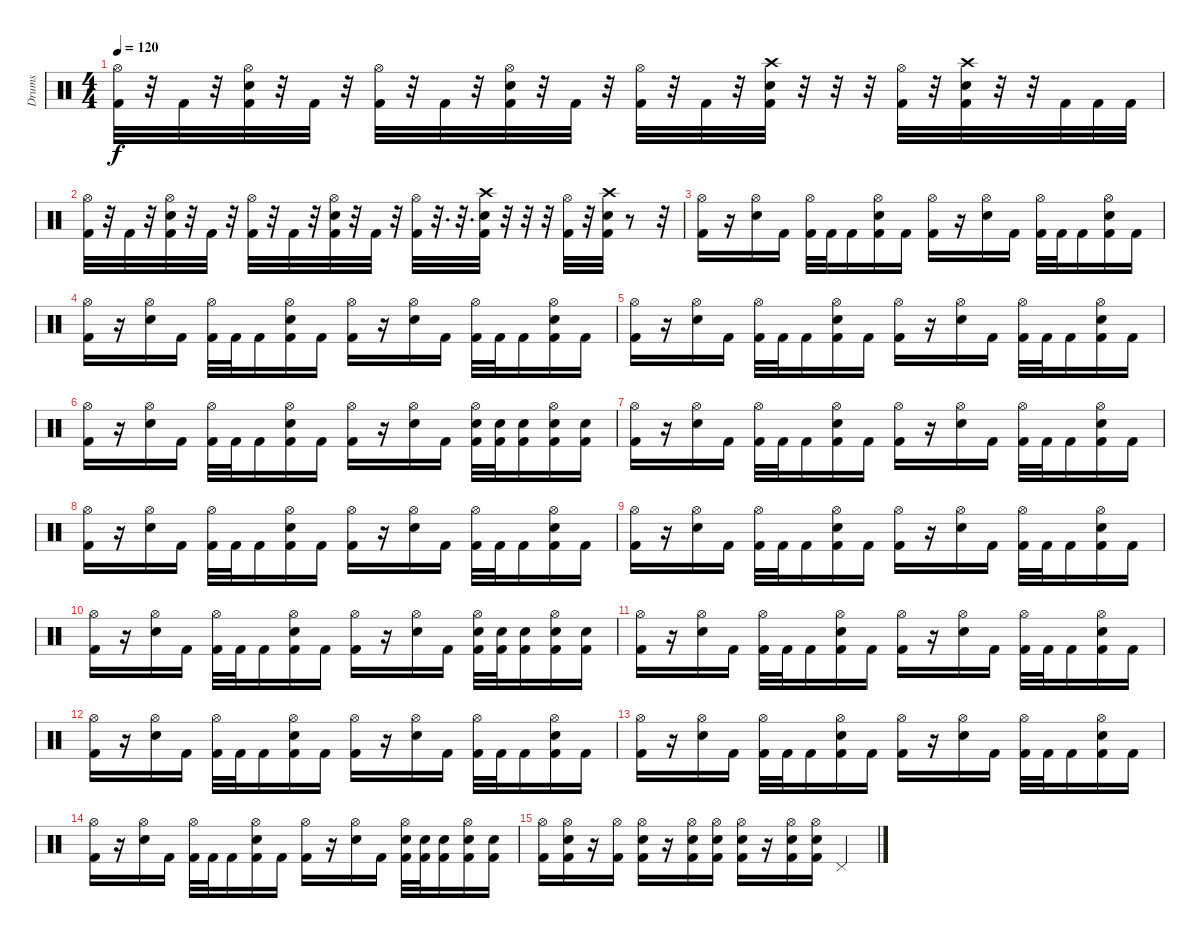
\track ("Drums" "Drums") {instrument percussion}
\staff {score}
\articulation defaults
\ts (4 4)
\tempo 120
\clef neutral
\ks c
("Hi-Hat (open)" "Kick (hit) 2").32{dy f} r.32 "Kick (hit) 2".32 r.32 ("Hi-Hat (open)" "Snare (hit) 2" "Kick (hit) 2").32 r.32 "Kick (hit) 2".32 r.32 ("Hi-Hat (open)" "Kick (hit) 2").32 r.32 "Kick (hit) 2".32 r.32 ("Hi-Hat (open)" "Snare (hit) 2" "Kick (hit) 2").32 r.32 "Kick (hit) 2".32 r.32 ("Hi-Hat (open)" "Kick (hit) 2").32 r.32 "Kick (hit) 2".32 r.32 ("Crash high (hit)" "Snare (hit) 2" "Kick (hit) 2").32 r.32 r.32 r.32 ("Hi-Hat (open)" "Kick (hit) 2").32 r.32 ("Crash high (hit)" "Snare (hit) 2" "Kick (hit) 2").32 r.32 r.32 "Kick (hit) 2".32 "Kick (hit) 2".32 "Kick (hit) 2".32 |
("Hi-Hat (open)" "Kick (hit) 2").32 r.32 "Kick (hit) 2".32 r.32 ("Hi-Hat (open)" "Snare (hit) 2" "Kick (hit) 2").32 r.32 "Kick (hit) 2".32 r.32 ("Hi-Hat (open)" "Kick (hit) 2").32 r.32 "Kick (hit) 2".32 r.32 ("Hi-Hat (open)" "Snare (hit) 2" "Kick (hit) 2").32 r.32 "Kick (hit) 2".32 r.32 ("Hi-Hat (open)" "Kick (hit) 2").32 r.32{d} r.32{d} ("Crash high (hit)" "Snare (hit) 2" "Kick (hit) 2").32 r.32 r.32 r.32 ("Hi-Hat (open)" "Kick (hit) 2").32 r.32 ("Crash high (hit)" "Snare (hit) 2" "Kick (hit) 2").32 r.8 r.32 |
("Hi-Hat (open)" "Kick (hit) 2").16 r.16 ("Hi-Hat (open)" "Snare (hit) 2").16 "Kick (hit) 2".16 ("Hi-Hat (open)" "Kick (hit) 2").32 "Kick (hit) 2".32 "Kick (hit) 2".16 ("Hi-Hat (open)" "Snare (hit) 2" "Kick (hit) 2").16 "Kick (hit) 2".16 ("Hi-Hat (open)" "Kick (hit) 2").16 r.16 ("Hi-Hat (open)" "Snare (hit) 2").16 "Kick (hit) 2".16 ("Hi-Hat (open)" "Kick (hit) 2").32 "Kick (hit) 2".32 "Kick (hit) 2".16 ("Hi-Hat (open)" "Snare (hit) 2" "Kick (hit) 2").16 "Kick (hit) 2".16 |
("Hi-Hat (open)" "Kick (hit) 2").16 r.16 ("Hi-Hat (open)" "Snare (hit) 2").16 "Kick (hit) 2".16 ("Hi-Hat (open)" "Kick (hit) 2").32 "Kick (hit) 2".32 "Kick (hit) 2".16 ("Hi-Hat (open)" "Snare (hit) 2" "Kick (hit) 2").16 "Kick (hit) 2".16 ("Hi-Hat (open)" "Kick (hit) 2").16 r.16 ("Hi-Hat (open)" "Snare (hit) 2").16 "Kick (hit) 2".16 ("Hi-Hat (open)" "Kick (hit) 2").32 "Kick (hit) 2".32 "Kick (hit) 2".16 ("Hi-Hat (open)" "Snare (hit) 2" "Kick (hit) 2").16 "Kick (hit) 2".16 |
("Hi-Hat (open)" "Kick (hit) 2").16 r.16 ("Hi-Hat (open)" "Snare (hit) 2").16 "Kick (hit) 2".16 ("Hi-Hat (open)" "Kick (hit) 2").32 "Kick (hit) 2".32 "Kick (hit) 2".16 ("Hi-Hat (open)" "Snare (hit) 2" "Kick (hit) 2").16 "Kick (hit) 2".16 ("Hi-Hat (open)" "Kick (hit) 2").16 r.16 ("Hi-Hat (open)" "Snare (hit) 2").16 "Kick (hit) 2".16 ("Hi-Hat (open)" "Kick (hit) 2").32 "Kick (hit) 2".32 "Kick (hit) 2".16 ("Hi-Hat (open)" "Snare (hit) 2" "Kick (hit) 2").16 "Kick (hit) 2".16 |
("Hi-Hat (open)" "Kick (hit) 2").16 r.16 ("Hi-Hat (open)" "Snare (hit) 2").16 "Kick (hit) 2".16 ("Hi-Hat (open)" "Kick (hit) 2").32 "Kick (hit) 2".32 "Kick (hit) 2".16 ("Hi-Hat (open)" "Snare (hit) 2" "Kick (hit) 2").16 "Kick (hit) 2".16 ("Hi-Hat (open)" "Kick (hit) 2").16 r.16 ("Hi-Hat (open)" "Snare (hit) 2").16 "Kick (hit) 2".16 ("Hi-Hat (open)" "Snare (hit) 2" "Kick (hit) 2").32 ("Snare (hit) 2" "Kick (hit) 2").32 ("Snare (hit) 2" "Kick (hit) 2").16 ("Hi-Hat (open)" "Snare (hit) 2" "Kick (hit) 2").16 ("Snare (hit) 2" "Kick (hit) 2").16 |
("Hi-Hat (open)" "Kick (hit) 2").16 r.16 ("Hi-Hat (open)" "Snare (hit) 2").16 "Kick (hit) 2".16 ("Hi-Hat (open)" "Kick (hit) 2").32 "Kick (hit) 2".32 "Kick (hit) 2".16 ("Hi-Hat (open)" "Snare (hit) 2" "Kick (hit) 2").16 "Kick (hit) 2".16 ("Hi-Hat (open)" "Kick (hit) 2").16 r.16 ("Hi-Hat (open)" "Snare (hit) 2").16 "Kick (hit) 2".16 ("Hi-Hat (open)" "Kick (hit) 2").32 "Kick (hit) 2".32 "Kick (hit) 2".16 ("Hi-Hat (open)" "Snare (hit) 2" "Kick (hit) 2").16 "Kick (hit) 2".16 |
("Hi-Hat (open)" "Kick (hit) 2").16 r.16 ("Hi-Hat (open)" "Snare (hit) 2").16 "Kick (hit) 2".16 ("Hi-Hat (open)" "Kick (hit) 2").32 "Kick (hit) 2".32 "Kick (hit) 2".16 ("Hi-Hat (open)" "Snare (hit) 2" "Kick (hit) 2").16 "Kick (hit) 2".16 ("Hi-Hat (open)" "Kick (hit) 2").16 r.16 ("Hi-Hat (open)" "Snare (hit) 2").16 "Kick (hit) 2".16 ("Hi-Hat (open)" "Kick (hit) 2").32 "Kick (hit) 2".32 "Kick (hit) 2".16 ("Hi-Hat (open)" "Snare (hit) 2" "Kick (hit) 2").16 "Kick (hit) 2".16 |
("Hi-Hat (open)" "Kick (hit) 2").16 r.16 ("Hi-Hat (open)" "Snare (hit) 2").16 "Kick (hit) 2".16 ("Hi-Hat (open)" "Kick (hit) 2").32 "Kick (hit) 2".32 "Kick (hit) 2".16 ("Hi-Hat (open)" "Snare (hit) 2" "Kick (hit) 2").16 "Kick (hit) 2".16 ("Hi-Hat (open)" "Kick (hit) 2").16 r.16 ("Hi-Hat (open)" "Snare (hit) 2").16 "Kick (hit) 2".16 ("Hi-Hat (open)" "Kick (hit) 2").32 "Kick (hit) 2".32 "Kick (hit) 2".16 ("Hi-Hat (open)" "Snare (hit) 2" "Kick (hit) 2").16 "Kick (hit) 2".16 |
("Hi-Hat (open)" "Kick (hit) 2").16 r.16 ("Hi-Hat (open)" "Snare (hit) 2").16 "Kick (hit) 2".16 ("Hi-Hat (open)" "Kick (hit) 2").32 "Kick (hit) 2".32 "Kick (hit) 2".16 ("Hi-Hat (open)" "Snare (hit) 2" "Kick (hit) 2").16 "Kick (hit) 2".16 ("Hi-Hat (open)" "Kick (hit) 2").16 r.16 ("Hi-Hat (open)" "Snare (hit) 2").16 "Kick (hit) 2".16 ("Hi-Hat (open)" "Snare (hit) 2" "Kick (hit) 2").32 ("Snare (hit) 2" "Kick (hit) 2").32 ("Snare (hit) 2" "Kick (hit) 2").16 ("Hi-Hat (open)" "Snare (hit) 2" "Kick (hit) 2").16 ("Snare (hit) 2" "Kick (hit) 2").16 |
("Hi-Hat (open)" "Kick (hit) 2").16 r.16 ("Hi-Hat (open)" "Snare (hit) 2").16 "Kick (hit) 2".16 ("Hi-Hat (open)" "Kick (hit) 2").32 "Kick (hit) 2".32 "Kick (hit) 2".16 ("Hi-Hat (open)" "Snare (hit) 2" "Kick (hit) 2").16 "Kick (hit) 2".16 ("Hi-Hat (open)" "Kick (hit) 2").16 r.16 ("Hi-Hat (open)" "Snare (hit) 2").16 "Kick (hit) 2".16 ("Hi-Hat (open)" "Kick (hit) 2").32 "Kick (hit) 2".32 "Kick (hit) 2".16 ("Hi-Hat (open)" "Snare (hit) 2" "Kick (hit) 2").16 "Kick (hit) 2".16 |
("Hi-Hat (open)" "Kick (hit) 2").16 r.16 ("Hi-Hat (open)" "Snare (hit) 2").16 "Kick (hit) 2".16 ("Hi-Hat (open)" "Kick (hit) 2").32 "Kick (hit) 2".32 "Kick (hit) 2".16 ("Hi-Hat (open)" "Snare (hit) 2" "Kick (hit) 2").16 "Kick (hit) 2".16 ("Hi-Hat (open)" "Kick (hit) 2").16 r.16 ("Hi-Hat (open)" "Snare (hit) 2").16 "Kick (hit) 2".16 ("Hi-Hat (open)" "Kick (hit) 2").32 "Kick (hit) 2".32 "Kick (hit) 2".16 ("Hi-Hat (open)" "Snare (hit) 2" "Kick (hit) 2").16 "Kick (hit) 2".16 |
("Hi-Hat (open)" "Kick (hit) 2").16 r.16 ("Hi-Hat (open)" "Snare (hit) 2").16 "Kick (hit) 2".16 ("Hi-Hat (open)" "Kick (hit) 2").32 "Kick (hit) 2".32 "Kick (hit) 2".16 ("Hi-Hat (open)" "Snare (hit) 2" "Kick (hit) 2").16 "Kick (hit) 2".16 ("Hi-Hat (open)" "Kick (hit) 2").16 r.16 ("Hi-Hat (open)" "Snare (hit) 2").16 "Kick (hit) 2".16 ("Hi-Hat (open)" "Kick (hit) 2").32 "Kick (hit) 2".32 "Kick (hit) 2".16 ("Hi-Hat (open)" "Snare (hit) 2" "Kick (hit) 2").16 "Kick (hit) 2".16 |
("Hi-Hat (open)" "Kick (hit) 2").16 r.16 ("Hi-Hat (open)" "Snare (hit) 2").16 "Kick (hit) 2".16 ("Hi-Hat (open)" "Kick (hit) 2").32 "Kick (hit) 2".32 "Kick (hit) 2".16 ("Hi-Hat (open)" "Snare (hit) 2" "Kick (hit) 2").16 "Kick (hit) 2".16 ("Hi-Hat (open)" "Kick (hit) 2").16 r.16 ("Hi-Hat (open)" "Snare (hit) 2").16 "Kick (hit) 2".16 ("Hi-Hat (open)" "Snare (hit) 2" "Kick (hit) 2").32 ("Snare (hit) 2" "Kick (hit) 2").32 ("Snare (hit) 2" "Kick (hit) 2").16 ("Hi-Hat (open)" "Snare (hit) 2" "Kick (hit) 2").16 ("Snare (hit) 2" "Kick (hit) 2").16 |
("Hi-Hat (open)" "Kick (hit) 2").16 ("Hi-Hat (open)" "Snare (hit) 2" "Kick (hit) 2").16 r.16 ("Hi-Hat (open)" "Kick (hit) 2").16 ("Hi-Hat (open)" "Snare (hit) 2" "Kick (hit) 2").16 r.16 ("Hi-Hat (open)" "Snare (hit) 2" "Kick (hit) 2").16 ("Hi-Hat (open)" "Snare (hit) 2" "Kick (hit) 2").16 ("Hi-Hat (open)" "Snare (hit) 2" "Kick (hit) 2").16 r.16 ("Hi-Hat (open)" "Snare (hit) 2" "Kick (hit) 2").16 ("Hi-Hat (open)" "Snare (hit) 2" "Kick (hit) 2").16 "Pedal Hi-Hat (hit)".4
